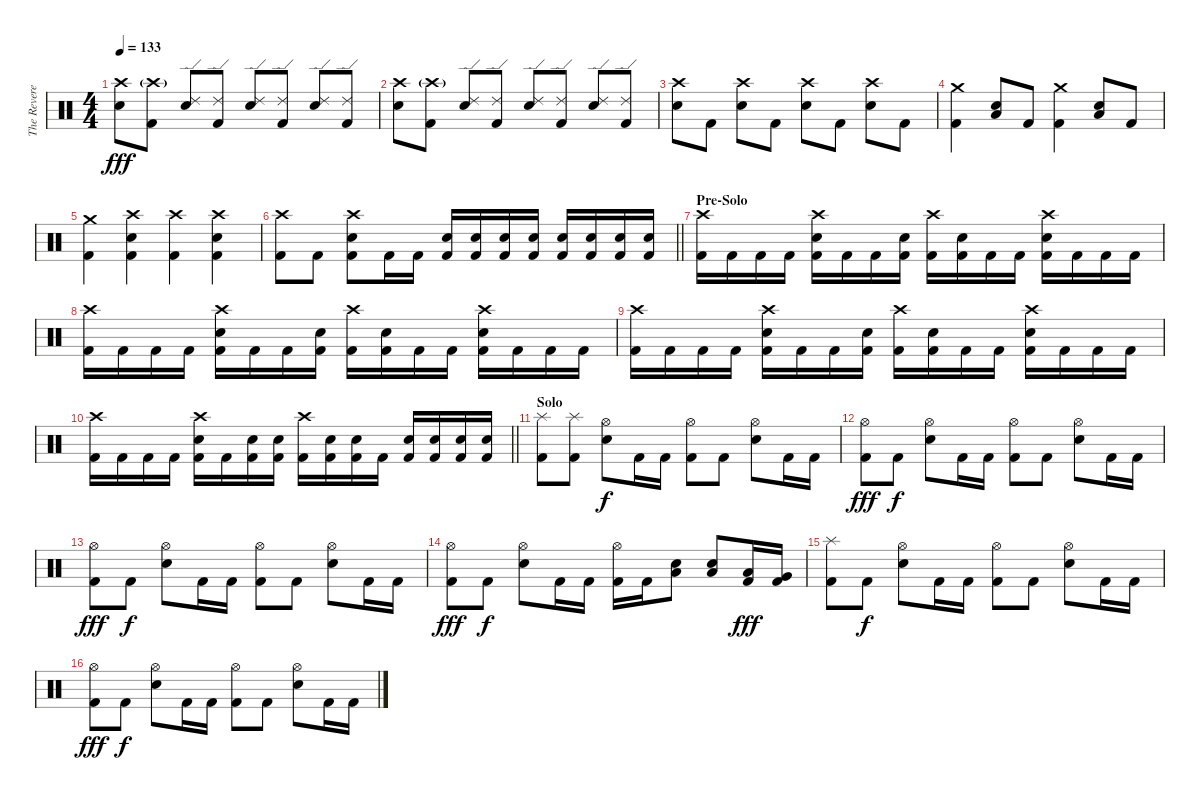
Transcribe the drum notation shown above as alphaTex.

\track ("The Reverend (R.I.P.) [Drums]" "The Revere") {instrument percussion}
\staff {score}
\articulation defaults
\ts (4 4)
\tempo 133
\clef neutral
\ks c
("Crash high (hit)" "Electric Snare (hit)").8{dy fff} ("Crash high (hit)"{g} "Kick (hit) 2").8 ("Ride (edge) 2" "Electric Snare (hit)").8 ("Ride (edge) 2" "Kick (hit) 2").8 ("Ride (edge) 2" "Electric Snare (hit)").8 ("Ride (edge) 2" "Kick (hit) 2").8 ("Ride (edge) 2" "Electric Snare (hit)").8 ("Ride (edge) 2" "Kick (hit) 2").8 |
("Crash high (hit)" "Electric Snare (hit)").8 ("Crash high (hit)"{g} "Kick (hit) 2").8 ("Ride (edge) 2" "Electric Snare (hit)").8 ("Ride (edge) 2" "Kick (hit) 2").8 ("Ride (edge) 2" "Electric Snare (hit)").8 ("Ride (edge) 2" "Kick (hit) 2").8 ("Ride (edge) 2" "Electric Snare (hit)").8 ("Ride (edge) 2" "Kick (hit) 2").8 |
("Crash high (hit)" "Electric Snare (hit)").8 "Kick (hit) 2".8 ("Crash high (hit)" "Electric Snare (hit)").8 "Kick (hit) 2".8 ("Crash high (hit)" "Electric Snare (hit)").8 "Kick (hit) 2".8 ("Crash high (hit)" "Electric Snare (hit)").8 "Kick (hit) 2".8 |
("Crash medium (hit)" "Kick (hit) 2").4 ("Low Floor Tom (hit)" "Electric Snare (hit)").8 "Kick (hit) 2".8 ("Crash medium (hit)" "Kick (hit) 2").4 ("Low Floor Tom (hit)" "Electric Snare (hit)").8 "Kick (hit) 2".8 |
("Crash medium (hit)" "Kick (hit) 2").4 ("Crash high (hit)" "Electric Snare (hit)" "Kick (hit) 2").4 ("Crash high (hit)" "Kick (hit) 2").4 ("Crash high (hit)" "Electric Snare (hit)" "Kick (hit) 2").4 |
\barLineRight lightlight
("Crash high (hit)" "Kick (hit) 2").8 "Kick (hit) 2".8 ("Crash high (hit)" "Electric Snare (hit)" "Kick (hit) 2").8 "Kick (hit) 2".16 "Kick (hit) 2".16 ("Electric Snare (hit)" "Kick (hit) 2").16 ("Electric Snare (hit)" "Kick (hit) 2").16 ("Electric Snare (hit)" "Kick (hit) 2").16 ("Electric Snare (hit)" "Kick (hit) 2").16 ("Electric Snare (hit)" "Kick (hit) 2").16 ("Electric Snare (hit)" "Kick (hit) 2").16 ("Electric Snare (hit)" "Kick (hit) 2").16 ("Electric Snare (hit)" "Kick (hit) 2").16 |
\section ("" "Pre-Solo")
("Crash high (hit)" "Kick (hit) 2").16 "Kick (hit) 2".16 "Kick (hit) 2".16 "Kick (hit) 2".16 ("Crash high (hit)" "Electric Snare (hit)" "Kick (hit) 2").16 "Kick (hit) 2".16 "Kick (hit) 2".16 ("Electric Snare (hit)" "Kick (hit) 2").16 ("Crash high (hit)" "Kick (hit) 2").16 ("Electric Snare (hit)" "Kick (hit) 2").16 "Kick (hit) 2".16 "Kick (hit) 2".16 ("Crash high (hit)" "Electric Snare (hit)" "Kick (hit) 2").16 "Kick (hit) 2".16 "Kick (hit) 2".16 "Kick (hit) 2".16 |
("Crash high (hit)" "Kick (hit) 2").16 "Kick (hit) 2".16 "Kick (hit) 2".16 "Kick (hit) 2".16 ("Crash high (hit)" "Electric Snare (hit)" "Kick (hit) 2").16 "Kick (hit) 2".16 "Kick (hit) 2".16 ("Electric Snare (hit)" "Kick (hit) 2").16 ("Crash high (hit)" "Kick (hit) 2").16 ("Electric Snare (hit)" "Kick (hit) 2").16 "Kick (hit) 2".16 "Kick (hit) 2".16 ("Crash high (hit)" "Electric Snare (hit)" "Kick (hit) 2").16 "Kick (hit) 2".16 "Kick (hit) 2".16 "Kick (hit) 2".16 |
("Crash high (hit)" "Kick (hit) 2").16 "Kick (hit) 2".16 "Kick (hit) 2".16 "Kick (hit) 2".16 ("Crash high (hit)" "Electric Snare (hit)" "Kick (hit) 2").16 "Kick (hit) 2".16 "Kick (hit) 2".16 ("Electric Snare (hit)" "Kick (hit) 2").16 ("Crash high (hit)" "Kick (hit) 2").16 ("Electric Snare (hit)" "Kick (hit) 2").16 "Kick (hit) 2".16 "Kick (hit) 2".16 ("Crash high (hit)" "Electric Snare (hit)" "Kick (hit) 2").16 "Kick (hit) 2".16 "Kick (hit) 2".16 "Kick (hit) 2".16 |
\barLineRight lightlight
("Crash high (hit)" "Kick (hit) 2").16 "Kick (hit) 2".16 "Kick (hit) 2".16 "Kick (hit) 2".16 ("Crash high (hit)" "Electric Snare (hit)" "Kick (hit) 2").16 "Kick (hit) 2".16 ("Electric Snare (hit)" "Kick (hit) 2").16 ("Electric Snare (hit)" "Kick (hit) 2").16 ("Crash high (hit)" "Kick (hit) 2").16 ("Electric Snare (hit)" "Kick (hit) 2").16 ("Electric Snare (hit)" "Kick (hit) 2").16 "Kick (hit) 2".16 ("Electric Snare (hit)" "Kick (hit) 2").16 ("Electric Snare (hit)" "Kick (hit) 2").16 ("Electric Snare (hit)" "Kick (hit) 2").16 ("Electric Snare (hit)" "Kick (hit) 2").16 |
\section ("" "Solo")
("Splash (hit)" "Kick (hit) 2").8 ("Splash (hit)" "Kick (hit) 2").8 ("Hi-Hat (open)" "Electric Snare (hit)").8{dy f} "Kick (hit) 2".16 "Kick (hit) 2".16 ("Hi-Hat (open)" "Kick (hit) 2").8 "Kick (hit) 2".8 ("Hi-Hat (open)" "Electric Snare (hit)").8 "Kick (hit) 2".16 "Kick (hit) 2".16 |
("Hi-Hat (open)" "Kick (hit) 2").8{dy fff} "Kick (hit) 2".8{dy f} ("Hi-Hat (open)" "Electric Snare (hit)").8 "Kick (hit) 2".16 "Kick (hit) 2".16 ("Hi-Hat (open)" "Kick (hit) 2").8 "Kick (hit) 2".8 ("Hi-Hat (open)" "Electric Snare (hit)").8 "Kick (hit) 2".16 "Kick (hit) 2".16 |
("Hi-Hat (open)" "Kick (hit) 2").8{dy fff} "Kick (hit) 2".8{dy f} ("Hi-Hat (open)" "Electric Snare (hit)").8 "Kick (hit) 2".16 "Kick (hit) 2".16 ("Hi-Hat (open)" "Kick (hit) 2").8 "Kick (hit) 2".8 ("Hi-Hat (open)" "Electric Snare (hit)").8 "Kick (hit) 2".16 "Kick (hit) 2".16 |
("Hi-Hat (open)" "Kick (hit) 2").8{dy fff} "Kick (hit) 2".8{dy f} ("Hi-Hat (open)" "Electric Snare (hit)").8 "Kick (hit) 2".16 "Kick (hit) 2".16 ("Hi-Hat (open)" "Kick (hit) 2").16 "Kick (hit) 2".16 ("Low Floor Tom (hit)" "Electric Snare (hit)").8 ("Low Floor Tom (hit)" "Electric Snare (hit)").8 ("Low Tom (hit)" "Kick (hit) 2").16{dy fff} ("Very Low Tom (hit)" "Kick (hit) 2").16 |
("Splash (hit)" "Kick (hit) 2").8 "Kick (hit) 2".8{dy f} ("Hi-Hat (open)" "Electric Snare (hit)").8 "Kick (hit) 2".16 "Kick (hit) 2".16 ("Hi-Hat (open)" "Kick (hit) 2").8 "Kick (hit) 2".8 ("Hi-Hat (open)" "Electric Snare (hit)").8 "Kick (hit) 2".16 "Kick (hit) 2".16 |
("Hi-Hat (open)" "Kick (hit) 2").8{dy fff} "Kick (hit) 2".8{dy f} ("Hi-Hat (open)" "Electric Snare (hit)").8 "Kick (hit) 2".16 "Kick (hit) 2".16 ("Hi-Hat (open)" "Kick (hit) 2").8 "Kick (hit) 2".8 ("Hi-Hat (open)" "Electric Snare (hit)").8 "Kick (hit) 2".16 "Kick (hit) 2".16
